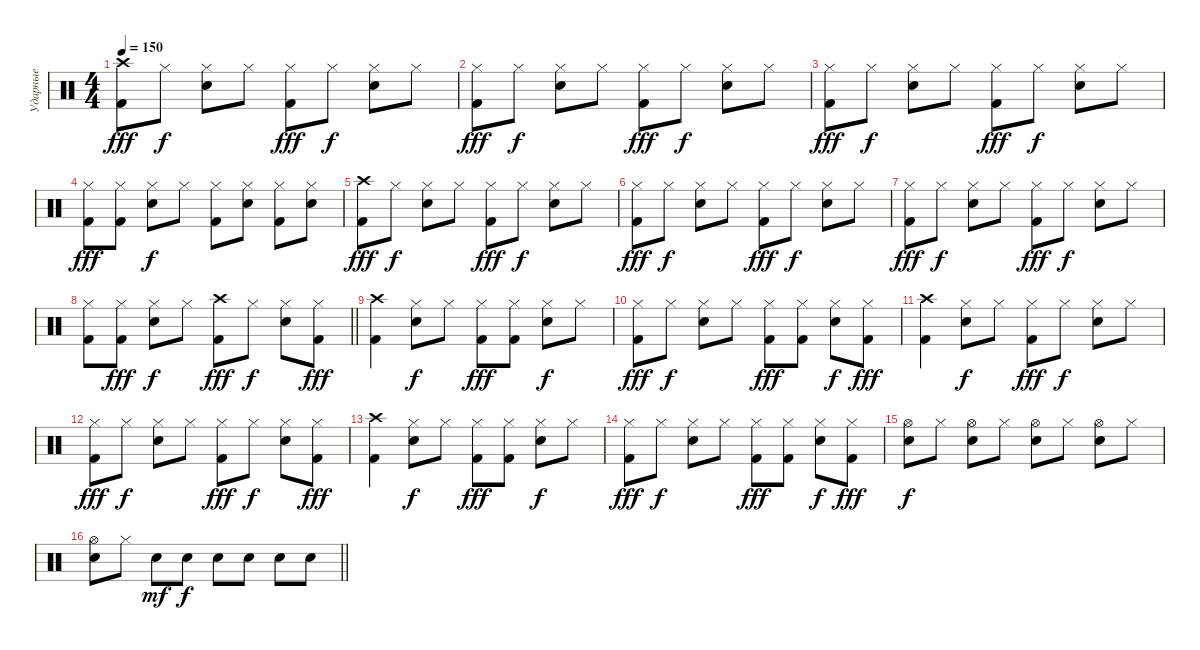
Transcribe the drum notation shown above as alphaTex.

\track ("Ударные" "Ударные") {instrument percussion}
\staff {score}
\articulation defaults
\ts (4 4)
\tempo 150
\clef neutral
\ks c
("Kick (hit) 2" "Crash high (hit)").8{dy fff} "Hi-Hat (closed)".8{dy f} ("Snare (hit) 2" "Hi-Hat (closed)").8 "Hi-Hat (closed)".8 ("Kick (hit) 2" "Hi-Hat (closed)").8{dy fff} "Hi-Hat (closed)".8{dy f} ("Snare (hit) 2" "Hi-Hat (closed)").8 "Hi-Hat (closed)".8 |
("Kick (hit) 2" "Hi-Hat (closed)").8{dy fff} "Hi-Hat (closed)".8{dy f} ("Snare (hit) 2" "Hi-Hat (closed)").8 "Hi-Hat (closed)".8 ("Kick (hit) 2" "Hi-Hat (closed)").8{dy fff} "Hi-Hat (closed)".8{dy f} ("Snare (hit) 2" "Hi-Hat (closed)").8 "Hi-Hat (closed)".8 |
("Kick (hit) 2" "Hi-Hat (closed)").8{dy fff} "Hi-Hat (closed)".8{dy f} ("Snare (hit) 2" "Hi-Hat (closed)").8 "Hi-Hat (closed)".8 ("Kick (hit) 2" "Hi-Hat (closed)").8{dy fff} "Hi-Hat (closed)".8{dy f} ("Snare (hit) 2" "Hi-Hat (closed)").8 "Hi-Hat (closed)".8 |
("Kick (hit) 2" "Hi-Hat (closed)").8{dy fff} ("Kick (hit) 2" "Hi-Hat (closed)").8 ("Snare (hit) 2" "Hi-Hat (closed)").8{dy f} "Hi-Hat (closed)".8 ("Kick (hit) 2" "Hi-Hat (closed)").8 ("Snare (hit) 2" "Hi-Hat (closed)").8 ("Kick (hit) 2" "Hi-Hat (closed)").8 ("Snare (hit) 2" "Hi-Hat (closed)").8 |
("Kick (hit) 2" "Crash high (hit)").8{dy fff} "Hi-Hat (closed)".8{dy f} ("Snare (hit) 2" "Hi-Hat (closed)").8 "Hi-Hat (closed)".8 ("Kick (hit) 2" "Hi-Hat (closed)").8{dy fff} "Hi-Hat (closed)".8{dy f} ("Snare (hit) 2" "Hi-Hat (closed)").8 "Hi-Hat (closed)".8 |
("Kick (hit) 2" "Hi-Hat (closed)").8{dy fff} "Hi-Hat (closed)".8{dy f} ("Snare (hit) 2" "Hi-Hat (closed)").8 "Hi-Hat (closed)".8 ("Kick (hit) 2" "Hi-Hat (closed)").8{dy fff} "Hi-Hat (closed)".8{dy f} ("Snare (hit) 2" "Hi-Hat (closed)").8 "Hi-Hat (closed)".8 |
("Kick (hit) 2" "Hi-Hat (closed)").8{dy fff} "Hi-Hat (closed)".8{dy f} ("Snare (hit) 2" "Hi-Hat (closed)").8 "Hi-Hat (closed)".8 ("Kick (hit) 2" "Hi-Hat (closed)").8{dy fff} "Hi-Hat (closed)".8{dy f} ("Snare (hit) 2" "Hi-Hat (closed)").8 "Hi-Hat (closed)".8 |
\barLineRight lightlight
("Kick (hit) 2" "Hi-Hat (closed)").8 ("Kick (hit) 2" "Hi-Hat (closed)").8{dy fff} ("Snare (hit) 2" "Hi-Hat (closed)").8{dy f} "Hi-Hat (closed)".8 ("Kick (hit) 2" "Crash high (hit)").8{dy fff} "Hi-Hat (closed)".8{dy f} ("Snare (hit) 2" "Hi-Hat (closed)").8 ("Kick (hit) 2" "Hi-Hat (closed)").8{dy fff} |
("Kick (hit) 2" "Crash high (hit)").4 ("Snare (hit) 2" "Hi-Hat (closed)").8{dy f} "Hi-Hat (closed)".8 ("Kick (hit) 2" "Hi-Hat (closed)").8{dy fff} ("Kick (hit) 2" "Hi-Hat (closed)").8 ("Snare (hit) 2" "Hi-Hat (closed)").8{dy f} "Hi-Hat (closed)".8 |
("Kick (hit) 2" "Hi-Hat (closed)").8{dy fff} "Hi-Hat (closed)".8{dy f} ("Snare (hit) 2" "Hi-Hat (closed)").8 "Hi-Hat (closed)".8 ("Kick (hit) 2" "Hi-Hat (closed)").8{dy fff} ("Kick (hit) 2" "Hi-Hat (closed)").8 ("Snare (hit) 2" "Hi-Hat (closed)").8{dy f} ("Kick (hit) 2" "Hi-Hat (closed)").8{dy fff} |
("Kick (hit) 2" "Crash high (hit)").4 ("Snare (hit) 2" "Hi-Hat (closed)").8{dy f} "Hi-Hat (closed)".8 ("Kick (hit) 2" "Hi-Hat (closed)").8{dy fff} "Hi-Hat (closed)".8{dy f} ("Snare (hit) 2" "Hi-Hat (closed)").8 "Hi-Hat (closed)".8 |
("Kick (hit) 2" "Hi-Hat (closed)").8{dy fff} "Hi-Hat (closed)".8{dy f} ("Snare (hit) 2" "Hi-Hat (closed)").8 "Hi-Hat (closed)".8 ("Kick (hit) 2" "Hi-Hat (closed)").8{dy fff} "Hi-Hat (closed)".8{dy f} ("Snare (hit) 2" "Hi-Hat (closed)").8 ("Kick (hit) 2" "Hi-Hat (closed)").8{dy fff} |
("Kick (hit) 2" "Crash high (hit)").4 ("Snare (hit) 2" "Hi-Hat (closed)").8{dy f} "Hi-Hat (closed)".8 ("Kick (hit) 2" "Hi-Hat (closed)").8{dy fff} ("Kick (hit) 2" "Hi-Hat (closed)").8 ("Snare (hit) 2" "Hi-Hat (closed)").8{dy f} "Hi-Hat (closed)".8 |
("Kick (hit) 2" "Hi-Hat (closed)").8{dy fff} "Hi-Hat (closed)".8{dy f} ("Snare (hit) 2" "Hi-Hat (closed)").8 "Hi-Hat (closed)".8 ("Kick (hit) 2" "Hi-Hat (closed)").8{dy fff} ("Kick (hit) 2" "Hi-Hat (closed)").8 ("Snare (hit) 2" "Hi-Hat (closed)").8{dy f} ("Kick (hit) 2" "Hi-Hat (closed)").8{dy fff} |
("Snare (hit) 2" "Hi-Hat (open)").8{dy f} "Hi-Hat (closed)".8 ("Snare (hit) 2" "Hi-Hat (open)").8 "Hi-Hat (closed)".8 ("Snare (hit) 2" "Hi-Hat (open)").8 "Hi-Hat (closed)".8 ("Snare (hit) 2" "Hi-Hat (open)").8 "Hi-Hat (closed)".8 |
\barLineRight lightlight
("Snare (hit) 2" "Hi-Hat (open)").8 "Hi-Hat (closed)".8 "Snare (hit) 2".8{dy mf} "Snare (hit) 2".8{dy f} "Snare (hit) 2".8 "Snare (hit) 2".8 "Snare (hit) 2".8 "Snare (hit) 2".8
